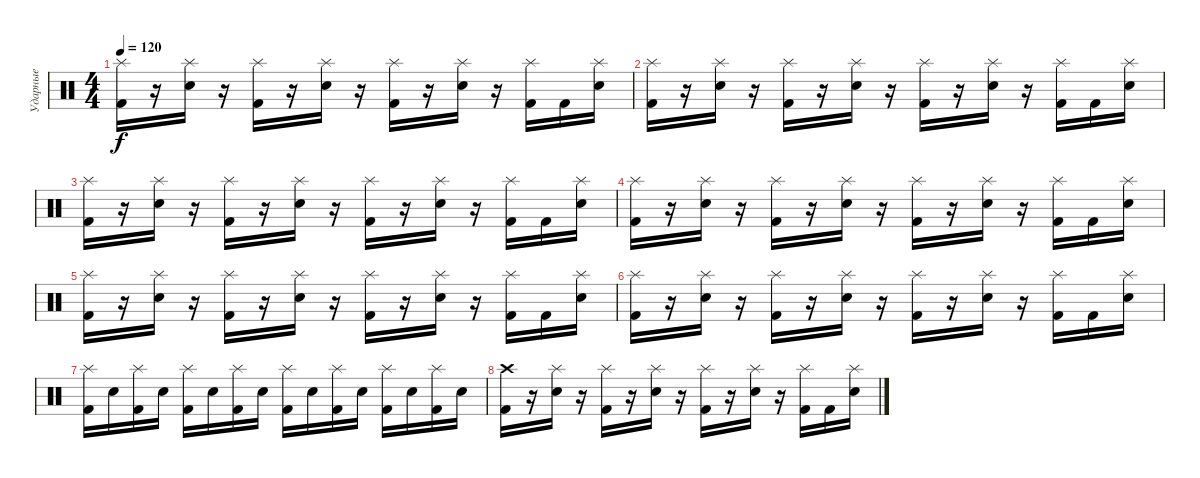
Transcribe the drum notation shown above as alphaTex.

\track ("Ударные" "Ударные") {instrument percussion}
\staff {score}
\articulation defaults
\ts (4 4)
\tempo 120
\clef neutral
\ks c
("Splash (hit)" "Kick (hit) 2").16{dy f} r.16 ("Splash (hit)" "Electric Snare (hit)").16 r.16 ("Splash (hit)" "Kick (hit) 2").16 r.16 ("Splash (hit)" "Electric Snare (hit)").16 r.16 ("Splash (hit)" "Kick (hit) 2").16 r.16 ("Splash (hit)" "Electric Snare (hit)").16 r.16 ("Splash (hit)" "Kick (hit) 2").16 "Kick (hit) 2".16 ("Splash (hit)" "Electric Snare (hit)").16 |
("Splash (hit)" "Kick (hit) 2").16 r.16 ("Splash (hit)" "Electric Snare (hit)").16 r.16 ("Splash (hit)" "Kick (hit) 2").16 r.16 ("Splash (hit)" "Electric Snare (hit)").16 r.16 ("Splash (hit)" "Kick (hit) 2").16 r.16 ("Splash (hit)" "Electric Snare (hit)").16 r.16 ("Splash (hit)" "Kick (hit) 2").16 "Kick (hit) 2".16 ("Splash (hit)" "Electric Snare (hit)").16 |
("Splash (hit)" "Kick (hit) 2").16 r.16 ("Splash (hit)" "Electric Snare (hit)").16 r.16 ("Splash (hit)" "Kick (hit) 2").16 r.16 ("Splash (hit)" "Electric Snare (hit)").16 r.16 ("Splash (hit)" "Kick (hit) 2").16 r.16 ("Splash (hit)" "Electric Snare (hit)").16 r.16 ("Splash (hit)" "Kick (hit) 2").16 "Kick (hit) 2".16 ("Splash (hit)" "Electric Snare (hit)").16 |
("Splash (hit)" "Kick (hit) 2").16 r.16 ("Splash (hit)" "Electric Snare (hit)").16 r.16 ("Splash (hit)" "Kick (hit) 2").16 r.16 ("Splash (hit)" "Electric Snare (hit)").16 r.16 ("Splash (hit)" "Kick (hit) 2").16 r.16 ("Splash (hit)" "Electric Snare (hit)").16 r.16 ("Splash (hit)" "Kick (hit) 2").16 "Kick (hit) 2".16 ("Splash (hit)" "Electric Snare (hit)").16 |
("Splash (hit)" "Kick (hit) 2").16 r.16 ("Splash (hit)" "Electric Snare (hit)").16 r.16 ("Splash (hit)" "Kick (hit) 2").16 r.16 ("Splash (hit)" "Electric Snare (hit)").16 r.16 ("Splash (hit)" "Kick (hit) 2").16 r.16 ("Splash (hit)" "Electric Snare (hit)").16 r.16 ("Splash (hit)" "Kick (hit) 2").16 "Kick (hit) 2".16 ("Splash (hit)" "Electric Snare (hit)").16 |
("Splash (hit)" "Kick (hit) 2").16 r.16 ("Splash (hit)" "Electric Snare (hit)").16 r.16 ("Splash (hit)" "Kick (hit) 2").16 r.16 ("Splash (hit)" "Electric Snare (hit)").16 r.16 ("Splash (hit)" "Kick (hit) 2").16 r.16 ("Splash (hit)" "Electric Snare (hit)").16 r.16 ("Splash (hit)" "Kick (hit) 2").16 "Kick (hit) 2".16 ("Splash (hit)" "Electric Snare (hit)").16 |
("Splash (hit)" "Kick (hit) 2").16 "Electric Snare (hit)".16 ("Splash (hit)" "Kick (hit) 2").16 "Electric Snare (hit)".16 ("Splash (hit)" "Kick (hit) 2").16 "Electric Snare (hit)".16 ("Splash (hit)" "Kick (hit) 2").16 "Electric Snare (hit)".16 ("Splash (hit)" "Kick (hit) 2").16 "Electric Snare (hit)".16 ("Splash (hit)" "Kick (hit) 2").16 "Electric Snare (hit)".16 ("Splash (hit)" "Kick (hit) 2").16 "Electric Snare (hit)".16 ("Splash (hit)" "Kick (hit) 2").16 "Electric Snare (hit)".16 |
("Crash high (hit)" "Kick (hit) 2").16 r.16 ("Splash (hit)" "Electric Snare (hit)").16 r.16 ("Splash (hit)" "Kick (hit) 2").16 r.16 ("Splash (hit)" "Electric Snare (hit)").16 r.16 ("Splash (hit)" "Kick (hit) 2").16 r.16 ("Splash (hit)" "Electric Snare (hit)").16 r.16 ("Splash (hit)" "Kick (hit) 2").16 "Kick (hit) 2".16 ("Splash (hit)" "Electric Snare (hit)").16
